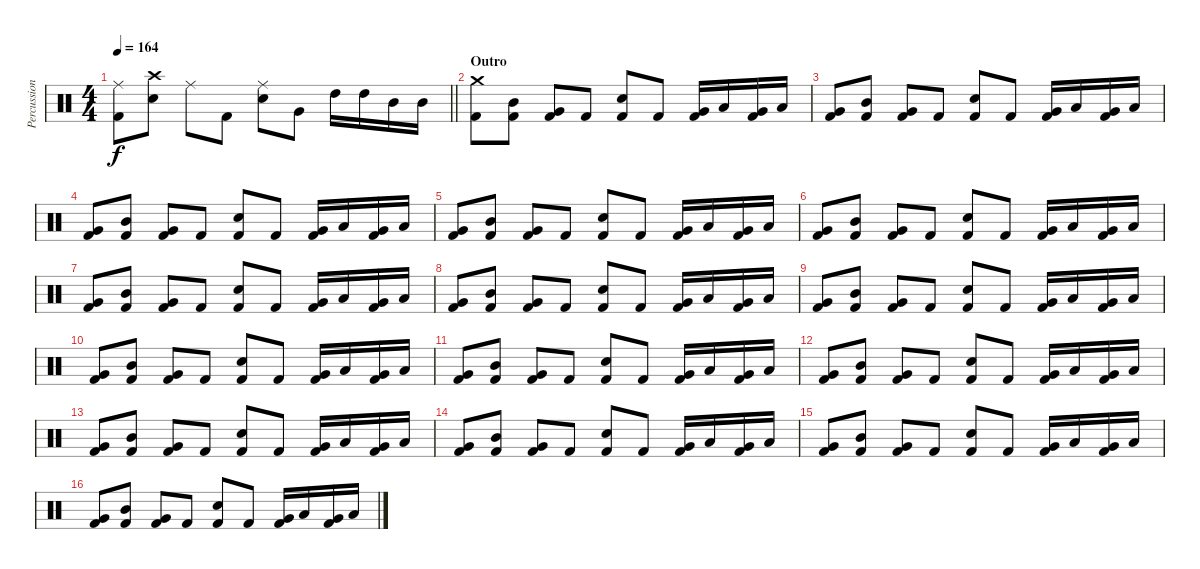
\track ("Percussions" "Percussion") {instrument percussion}
\staff {score}
\articulation defaults
\ts (4 4)
\tempo 164
\clef neutral
\barLineRight lightlight
\ks c
("Ride (middle)" "Kick (hit) 2").8{dy f} ("Crash high (hit)" "Snare (hit) 2").8 "Ride (middle)".8 "Kick (hit) 2".8 ("Ride (middle)" "Snare (hit) 2").8 "Very Low Tom (hit)".8 "High Tom (hit)".16 "High Tom (hit)".16 "Mid Tom (hit)".16 "Mid Tom (hit)".16 |
\section ("" "Outro")
("Crash medium (hit)" "Kick (hit) 2").8 ("Mid Tom (hit)" "Kick (hit) 2").8 ("Very Low Tom (hit)" "Kick (hit) 2").8 "Kick (hit) 2".8 ("Snare (hit) 2" "Kick (hit) 2").8 "Kick (hit) 2".8 ("Very Low Tom (hit)" "Kick (hit) 2").16 "Low Tom (hit)".16 ("Very Low Tom (hit)" "Kick (hit) 2").16 "Low Tom (hit)".16 |
("Very Low Tom (hit)" "Kick (hit) 2").8 ("Mid Tom (hit)" "Kick (hit) 2").8 ("Very Low Tom (hit)" "Kick (hit) 2").8 "Kick (hit) 2".8 ("Snare (hit) 2" "Kick (hit) 2").8 "Kick (hit) 2".8 ("Very Low Tom (hit)" "Kick (hit) 2").16 "Low Tom (hit)".16 ("Very Low Tom (hit)" "Kick (hit) 2").16 "Low Tom (hit)".16 |
("Very Low Tom (hit)" "Kick (hit) 2").8 ("Mid Tom (hit)" "Kick (hit) 2").8 ("Very Low Tom (hit)" "Kick (hit) 2").8 "Kick (hit) 2".8 ("Snare (hit) 2" "Kick (hit) 2").8 "Kick (hit) 2".8 ("Very Low Tom (hit)" "Kick (hit) 2").16 "Low Tom (hit)".16 ("Very Low Tom (hit)" "Kick (hit) 2").16 "Low Tom (hit)".16 |
("Very Low Tom (hit)" "Kick (hit) 2").8 ("Mid Tom (hit)" "Kick (hit) 2").8 ("Very Low Tom (hit)" "Kick (hit) 2").8 "Kick (hit) 2".8 ("Snare (hit) 2" "Kick (hit) 2").8 "Kick (hit) 2".8 ("Very Low Tom (hit)" "Kick (hit) 2").16 "Low Tom (hit)".16 ("Very Low Tom (hit)" "Kick (hit) 2").16 "Low Tom (hit)".16 |
("Very Low Tom (hit)" "Kick (hit) 2").8 ("Mid Tom (hit)" "Kick (hit) 2").8 ("Very Low Tom (hit)" "Kick (hit) 2").8 "Kick (hit) 2".8 ("Snare (hit) 2" "Kick (hit) 2").8 "Kick (hit) 2".8 ("Very Low Tom (hit)" "Kick (hit) 2").16 "Low Tom (hit)".16 ("Very Low Tom (hit)" "Kick (hit) 2").16 "Low Tom (hit)".16 |
("Very Low Tom (hit)" "Kick (hit) 2").8 ("Mid Tom (hit)" "Kick (hit) 2").8 ("Very Low Tom (hit)" "Kick (hit) 2").8 "Kick (hit) 2".8 ("Snare (hit) 2" "Kick (hit) 2").8 "Kick (hit) 2".8 ("Very Low Tom (hit)" "Kick (hit) 2").16 "Low Tom (hit)".16 ("Very Low Tom (hit)" "Kick (hit) 2").16 "Low Tom (hit)".16 |
("Very Low Tom (hit)" "Kick (hit) 2").8 ("Mid Tom (hit)" "Kick (hit) 2").8 ("Very Low Tom (hit)" "Kick (hit) 2").8 "Kick (hit) 2".8 ("Snare (hit) 2" "Kick (hit) 2").8 "Kick (hit) 2".8 ("Very Low Tom (hit)" "Kick (hit) 2").16 "Low Tom (hit)".16 ("Very Low Tom (hit)" "Kick (hit) 2").16 "Low Tom (hit)".16 |
("Very Low Tom (hit)" "Kick (hit) 2").8 ("Mid Tom (hit)" "Kick (hit) 2").8 ("Very Low Tom (hit)" "Kick (hit) 2").8 "Kick (hit) 2".8 ("Snare (hit) 2" "Kick (hit) 2").8 "Kick (hit) 2".8 ("Very Low Tom (hit)" "Kick (hit) 2").16 "Low Tom (hit)".16 ("Very Low Tom (hit)" "Kick (hit) 2").16 "Low Tom (hit)".16 |
("Very Low Tom (hit)" "Kick (hit) 2").8 ("Mid Tom (hit)" "Kick (hit) 2").8 ("Very Low Tom (hit)" "Kick (hit) 2").8 "Kick (hit) 2".8 ("Snare (hit) 2" "Kick (hit) 2").8 "Kick (hit) 2".8 ("Very Low Tom (hit)" "Kick (hit) 2").16 "Low Tom (hit)".16 ("Very Low Tom (hit)" "Kick (hit) 2").16 "Low Tom (hit)".16 |
("Very Low Tom (hit)" "Kick (hit) 2").8 ("Mid Tom (hit)" "Kick (hit) 2").8 ("Very Low Tom (hit)" "Kick (hit) 2").8 "Kick (hit) 2".8 ("Snare (hit) 2" "Kick (hit) 2").8 "Kick (hit) 2".8 ("Very Low Tom (hit)" "Kick (hit) 2").16 "Low Tom (hit)".16 ("Very Low Tom (hit)" "Kick (hit) 2").16 "Low Tom (hit)".16 |
("Very Low Tom (hit)" "Kick (hit) 2").8 ("Mid Tom (hit)" "Kick (hit) 2").8 ("Very Low Tom (hit)" "Kick (hit) 2").8 "Kick (hit) 2".8 ("Snare (hit) 2" "Kick (hit) 2").8 "Kick (hit) 2".8 ("Very Low Tom (hit)" "Kick (hit) 2").16 "Low Tom (hit)".16 ("Very Low Tom (hit)" "Kick (hit) 2").16 "Low Tom (hit)".16 |
("Very Low Tom (hit)" "Kick (hit) 2").8 ("Mid Tom (hit)" "Kick (hit) 2").8 ("Very Low Tom (hit)" "Kick (hit) 2").8 "Kick (hit) 2".8 ("Snare (hit) 2" "Kick (hit) 2").8 "Kick (hit) 2".8 ("Very Low Tom (hit)" "Kick (hit) 2").16 "Low Tom (hit)".16 ("Very Low Tom (hit)" "Kick (hit) 2").16 "Low Tom (hit)".16 |
("Very Low Tom (hit)" "Kick (hit) 2").8 ("Mid Tom (hit)" "Kick (hit) 2").8 ("Very Low Tom (hit)" "Kick (hit) 2").8 "Kick (hit) 2".8 ("Snare (hit) 2" "Kick (hit) 2").8 "Kick (hit) 2".8 ("Very Low Tom (hit)" "Kick (hit) 2").16 "Low Tom (hit)".16 ("Very Low Tom (hit)" "Kick (hit) 2").16 "Low Tom (hit)".16 |
("Very Low Tom (hit)" "Kick (hit) 2").8 ("Mid Tom (hit)" "Kick (hit) 2").8 ("Very Low Tom (hit)" "Kick (hit) 2").8 "Kick (hit) 2".8 ("Snare (hit) 2" "Kick (hit) 2").8 "Kick (hit) 2".8 ("Very Low Tom (hit)" "Kick (hit) 2").16 "Low Tom (hit)".16 ("Very Low Tom (hit)" "Kick (hit) 2").16 "Low Tom (hit)".16 |
("Very Low Tom (hit)" "Kick (hit) 2").8 ("Mid Tom (hit)" "Kick (hit) 2").8 ("Very Low Tom (hit)" "Kick (hit) 2").8 "Kick (hit) 2".8 ("Snare (hit) 2" "Kick (hit) 2").8 "Kick (hit) 2".8 ("Very Low Tom (hit)" "Kick (hit) 2").16 "Low Tom (hit)".16 ("Very Low Tom (hit)" "Kick (hit) 2").16 "Low Tom (hit)".16
